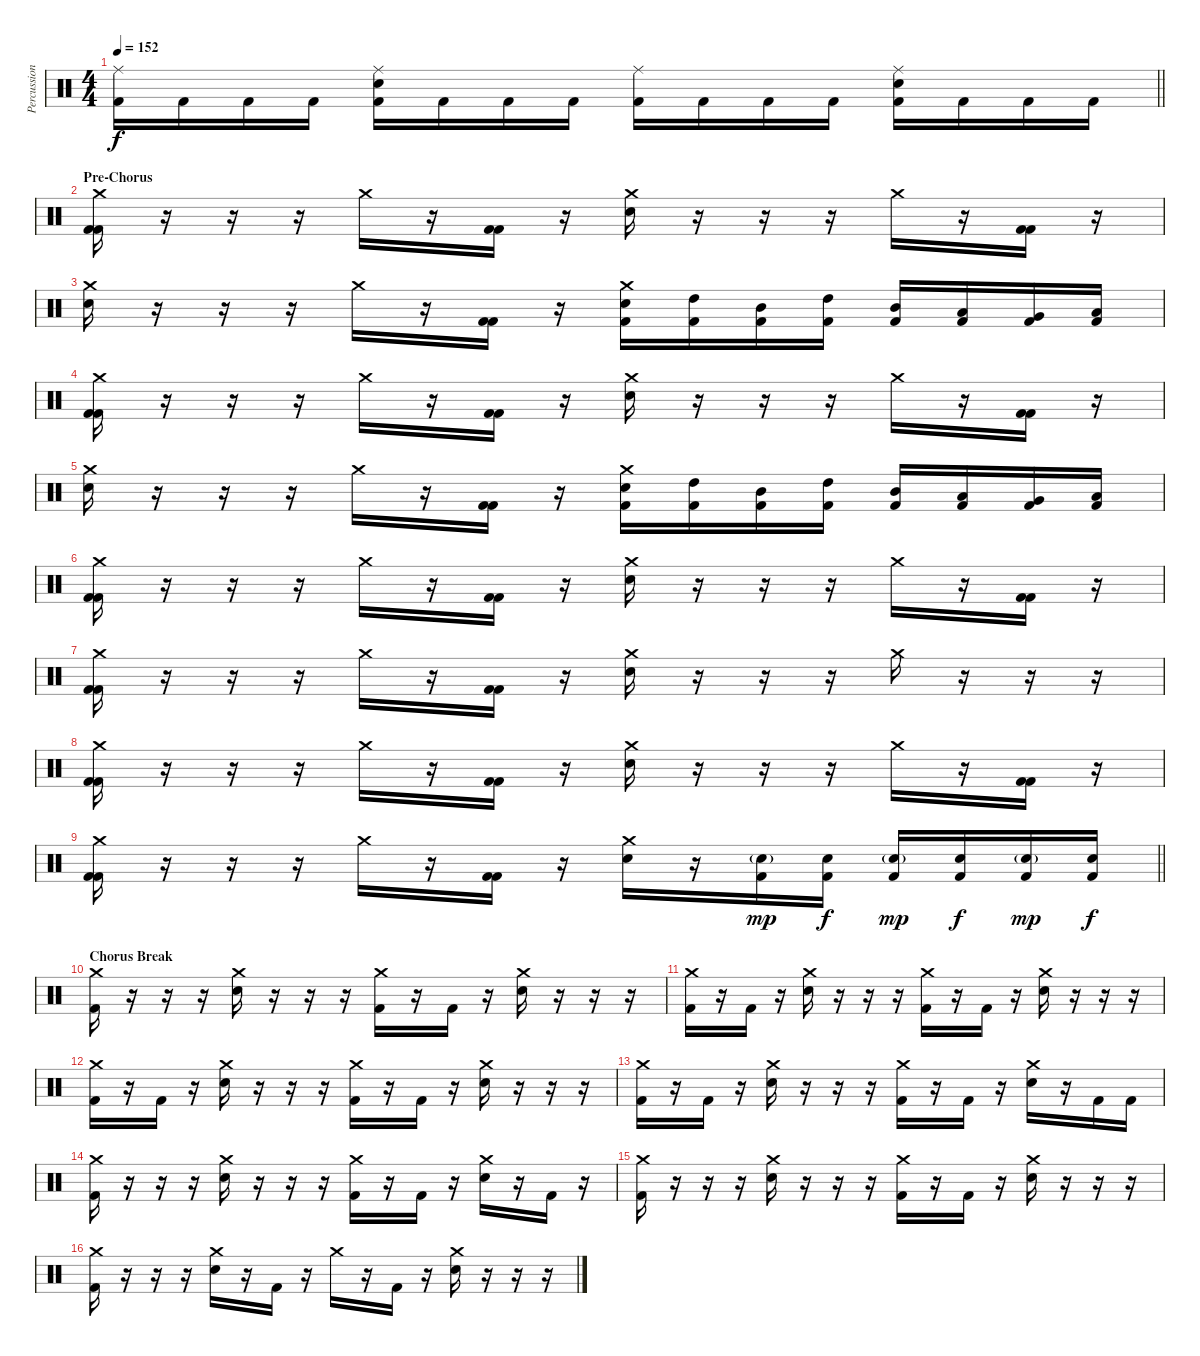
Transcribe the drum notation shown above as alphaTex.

\track ("Percussion" "Percussion") {instrument percussion}
\staff {score}
\articulation defaults
\ts (4 4)
\tempo 152
\clef neutral
\barLineRight lightlight
\ks c
("Ride (middle)" "Kick (hit) 2").16{dy f} "Kick (hit) 2".16 "Kick (hit) 2".16 "Kick (hit) 2".16 ("Ride (middle)" "Snare (hit) 2" "Kick (hit) 2").16 "Kick (hit) 2".16 "Kick (hit) 2".16 "Kick (hit) 2".16 ("Ride (middle)" "Kick (hit) 2").16 "Kick (hit) 2".16 "Kick (hit) 2".16 "Kick (hit) 2".16 ("Ride (middle)" "Snare (hit) 2" "Kick (hit) 2").16 "Kick (hit) 2".16 "Kick (hit) 2".16 "Kick (hit) 2".16 |
\section ("" "Pre-Chorus")
("Crash medium (hit)" "Kick (hit) 2" "Kick (hit) 2").16 r.16 r.16 r.16 "Crash medium (hit)".16 r.16 ("Kick (hit) 2" "Kick (hit) 2").16 r.16 ("Crash medium (hit)" "Snare (hit) 2").16 r.16 r.16 r.16 "Crash medium (hit)".16 r.16 ("Kick (hit) 2" "Kick (hit) 2").16 r.16 |
("Crash medium (hit)" "Snare (hit) 2").16 r.16 r.16 r.16 "Crash medium (hit)".16 r.16 ("Kick (hit) 2" "Kick (hit) 2").16 r.16 ("Crash medium (hit)" "Snare (hit) 2" "Kick (hit) 2").16 ("High Tom (hit)" "Kick (hit) 2").16 ("Mid Tom (hit)" "Kick (hit) 2").16 ("High Tom (hit)" "Kick (hit) 2").16 ("Mid Tom (hit)" "Kick (hit) 2").16 ("Low Tom (hit)" "Kick (hit) 2").16 ("Very Low Tom (hit)" "Kick (hit) 2").16 ("Low Floor Tom (hit)" "Kick (hit) 2").16 |
("Crash medium (hit)" "Kick (hit) 2" "Kick (hit) 2").16 r.16 r.16 r.16 "Crash medium (hit)".16 r.16 ("Kick (hit) 2" "Kick (hit) 2").16 r.16 ("Crash medium (hit)" "Snare (hit) 2").16 r.16 r.16 r.16 "Crash medium (hit)".16 r.16 ("Kick (hit) 2" "Kick (hit) 2").16 r.16 |
("Crash medium (hit)" "Snare (hit) 2").16 r.16 r.16 r.16 "Crash medium (hit)".16 r.16 ("Kick (hit) 2" "Kick (hit) 2").16 r.16 ("Crash medium (hit)" "Snare (hit) 2" "Kick (hit) 2").16 ("High Tom (hit)" "Kick (hit) 2").16 ("Mid Tom (hit)" "Kick (hit) 2").16 ("High Tom (hit)" "Kick (hit) 2").16 ("Mid Tom (hit)" "Kick (hit) 2").16 ("Low Tom (hit)" "Kick (hit) 2").16 ("Very Low Tom (hit)" "Kick (hit) 2").16 ("Low Floor Tom (hit)" "Kick (hit) 2").16 |
("Crash medium (hit)" "Kick (hit) 2" "Kick (hit) 2").16 r.16 r.16 r.16 "Crash medium (hit)".16 r.16 ("Kick (hit) 2" "Kick (hit) 2").16 r.16 ("Crash medium (hit)" "Snare (hit) 2").16 r.16 r.16 r.16 "Crash medium (hit)".16 r.16 ("Kick (hit) 2" "Kick (hit) 2").16 r.16 |
("Crash medium (hit)" "Kick (hit) 2" "Kick (hit) 2").16 r.16 r.16 r.16 "Crash medium (hit)".16 r.16 ("Kick (hit) 2" "Kick (hit) 2").16 r.16 ("Crash medium (hit)" "Snare (hit) 2").16 r.16 r.16 r.16 "Crash medium (hit)".16 r.16 r.16 r.16 |
("Crash medium (hit)" "Kick (hit) 2" "Kick (hit) 2").16 r.16 r.16 r.16 "Crash medium (hit)".16 r.16 ("Kick (hit) 2" "Kick (hit) 2").16 r.16 ("Crash medium (hit)" "Snare (hit) 2").16 r.16 r.16 r.16 "Crash medium (hit)".16 r.16 ("Kick (hit) 2" "Kick (hit) 2").16 r.16 |
\barLineRight lightlight
("Crash medium (hit)" "Kick (hit) 2" "Kick (hit) 2").16 r.16 r.16 r.16 "Crash medium (hit)".16 r.16 ("Kick (hit) 2" "Kick (hit) 2").16 r.16 ("Crash medium (hit)" "Snare (hit) 2").16 r.16 ("Snare (hit) 2"{g} "Kick (hit) 2").16{dy mp} ("Snare (hit) 2" "Kick (hit) 2").16{dy f} ("Snare (hit) 2"{g} "Kick (hit) 2").16{dy mp} ("Snare (hit) 2" "Kick (hit) 2").16{dy f} ("Snare (hit) 2"{g} "Kick (hit) 2").16{dy mp} ("Snare (hit) 2" "Kick (hit) 2").16{dy f} |
\section ("" "Chorus Break")
("Crash medium (hit)" "Kick (hit) 2").16 r.16 r.16 r.16 ("Crash medium (hit)" "Snare (hit) 2").16 r.16 r.16 r.16 ("Crash medium (hit)" "Kick (hit) 2").16 r.16 "Kick (hit) 2".16 r.16 ("Crash medium (hit)" "Snare (hit) 2").16 r.16 r.16 r.16 |
("Crash medium (hit)" "Kick (hit) 2").16 r.16 "Kick (hit) 2".16 r.16 ("Crash medium (hit)" "Snare (hit) 2").16 r.16 r.16 r.16 ("Crash medium (hit)" "Kick (hit) 2").16 r.16 "Kick (hit) 2".16 r.16 ("Crash medium (hit)" "Snare (hit) 2").16 r.16 r.16 r.16 |
("Crash medium (hit)" "Kick (hit) 2").16 r.16 "Kick (hit) 2".16 r.16 ("Crash medium (hit)" "Snare (hit) 2").16 r.16 r.16 r.16 ("Crash medium (hit)" "Kick (hit) 2").16 r.16 "Kick (hit) 2".16 r.16 ("Crash medium (hit)" "Snare (hit) 2").16 r.16 r.16 r.16 |
("Crash medium (hit)" "Kick (hit) 2").16 r.16 "Kick (hit) 2".16 r.16 ("Crash medium (hit)" "Snare (hit) 2").16 r.16 r.16 r.16 ("Crash medium (hit)" "Kick (hit) 2").16 r.16 "Kick (hit) 2".16 r.16 ("Crash medium (hit)" "Snare (hit) 2").16 r.16 "Kick (hit) 2".16 "Kick (hit) 2".16 |
("Crash medium (hit)" "Kick (hit) 2").16 r.16 r.16 r.16 ("Crash medium (hit)" "Snare (hit) 2").16 r.16 r.16 r.16 ("Crash medium (hit)" "Kick (hit) 2").16 r.16 "Kick (hit) 2".16 r.16 ("Crash medium (hit)" "Snare (hit) 2").16 r.16 "Kick (hit) 2".16 r.16 |
("Crash medium (hit)" "Kick (hit) 2").16 r.16 r.16 r.16 ("Crash medium (hit)" "Snare (hit) 2").16 r.16 r.16 r.16 ("Crash medium (hit)" "Kick (hit) 2").16 r.16 "Kick (hit) 2".16 r.16 ("Crash medium (hit)" "Snare (hit) 2").16 r.16 r.16 r.16 |
("Crash medium (hit)" "Kick (hit) 2").16 r.16 r.16 r.16 ("Crash medium (hit)" "Snare (hit) 2").16 r.16 "Kick (hit) 2".16 r.16 "Crash medium (hit)".16 r.16 "Kick (hit) 2".16 r.16 ("Crash medium (hit)" "Snare (hit) 2").16 r.16 r.16 r.16
